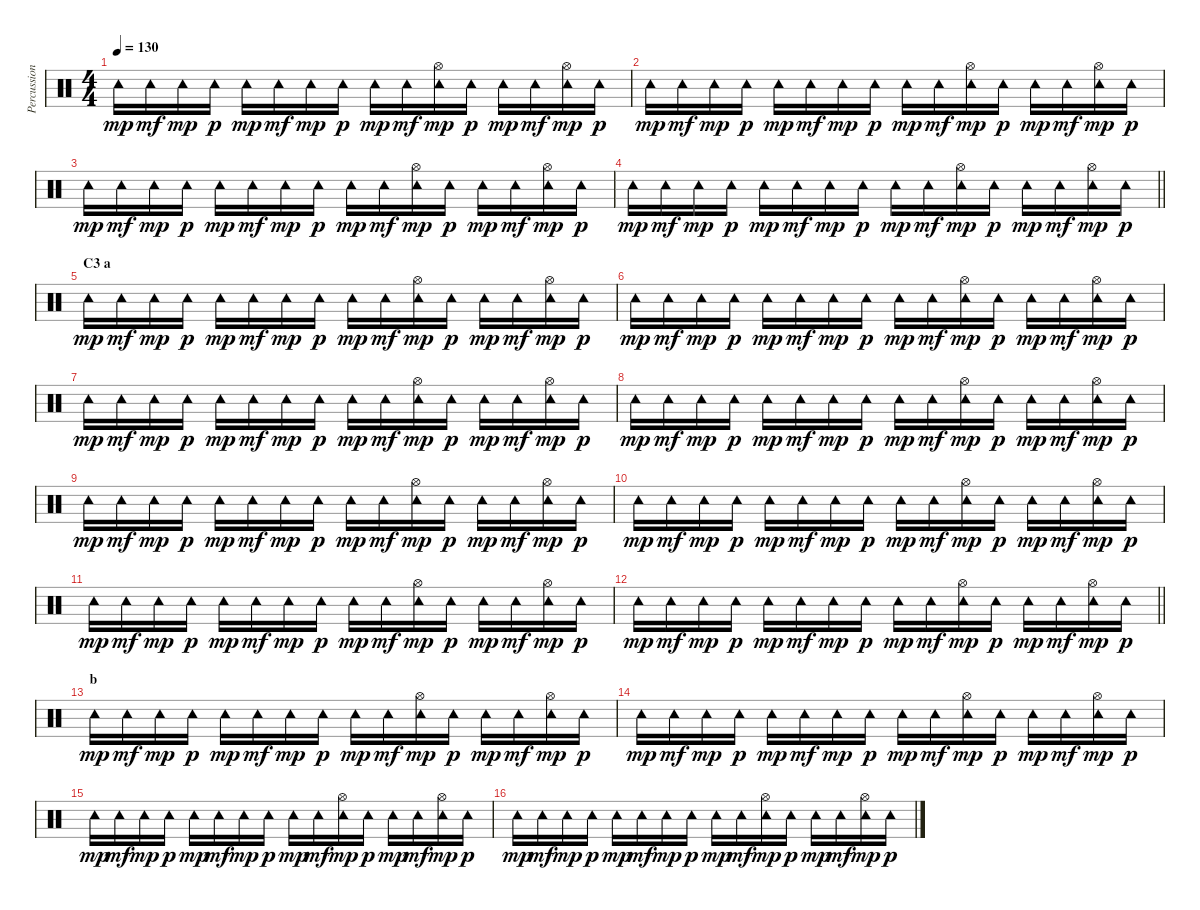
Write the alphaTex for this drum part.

\track ("Percussion (Programmed)" "Percussion") {instrument percussion}
\staff {score}
\articulation defaults
\ts (4 4)
\tempo 130
\clef neutral
\ks c "Tambourine (hit)".16{dy mp} "Tambourine (hit)".16{dy mf} "Tambourine (hit)".16{dy mp} "Tambourine (hit)".16{dy p} "Tambourine (hit)".16{dy mp} "Tambourine (hit)".16{dy mf} "Tambourine (hit)".16{dy mp} "Tambourine (hit)".16{dy p} "Tambourine (hit)".16{dy mp} "Tambourine (hit)".16{dy mf}
("Tambourine (hit)" "Hi-Hat (open)").16{dy mp} "Tambourine (hit)".16{dy p} "Tambourine (hit)".16{dy mp} "Tambourine (hit)".16{dy mf} ("Tambourine (hit)" "Hi-Hat (open)").16{dy mp} "Tambourine (hit)".16{dy p} |
"Tambourine (hit)".16{dy mp} "Tambourine (hit)".16{dy mf} "Tambourine (hit)".16{dy mp} "Tambourine (hit)".16{dy p} "Tambourine (hit)".16{dy mp} "Tambourine (hit)".16{dy mf} "Tambourine (hit)".16{dy mp} "Tambourine (hit)".16{dy p} "Tambourine (hit)".16{dy mp} "Tambourine (hit)".16{dy mf} ("Tambourine (hit)" "Hi-Hat (open)").16{dy mp} "Tambourine (hit)".16{dy p} "Tambourine (hit)".16{dy mp} "Tambourine (hit)".16{dy mf} ("Tambourine (hit)" "Hi-Hat (open)").16{dy mp} "Tambourine (hit)".16{dy p} |
"Tambourine (hit)".16{dy mp} "Tambourine (hit)".16{dy mf} "Tambourine (hit)".16{dy mp} "Tambourine (hit)".16{dy p} "Tambourine (hit)".16{dy mp} "Tambourine (hit)".16{dy mf} "Tambourine (hit)".16{dy mp} "Tambourine (hit)".16{dy p} "Tambourine (hit)".16{dy mp} "Tambourine (hit)".16{dy mf} ("Tambourine (hit)" "Hi-Hat (open)").16{dy mp} "Tambourine (hit)".16{dy p} "Tambourine (hit)".16{dy mp} "Tambourine (hit)".16{dy mf} ("Tambourine (hit)" "Hi-Hat (open)").16{dy mp} "Tambourine (hit)".16{dy p} |
\barLineRight lightlight "Tambourine (hit)".16{dy mp} "Tambourine (hit)".16{dy mf} "Tambourine (hit)".16{dy mp} "Tambourine (hit)".16{dy p} "Tambourine (hit)".16{dy mp} "Tambourine (hit)".16{dy mf} "Tambourine (hit)".16{dy mp} "Tambourine (hit)".16{dy p} "Tambourine (hit)".16{dy mp} "Tambourine (hit)".16{dy mf}
("Tambourine (hit)" "Hi-Hat (open)").16{dy mp} "Tambourine (hit)".16{dy p} "Tambourine (hit)".16{dy mp} "Tambourine (hit)".16{dy mf} ("Tambourine (hit)" "Hi-Hat (open)").16{dy mp} "Tambourine (hit)".16{dy p} |
\section ("" "C3 a")
"Tambourine (hit)".16{dy mp} "Tambourine (hit)".16{dy mf} "Tambourine (hit)".16{dy mp} "Tambourine (hit)".16{dy p} "Tambourine (hit)".16{dy mp} "Tambourine (hit)".16{dy mf} "Tambourine (hit)".16{dy mp} "Tambourine (hit)".16{dy p} "Tambourine (hit)".16{dy mp} "Tambourine (hit)".16{dy mf} ("Tambourine (hit)" "Hi-Hat (open)").16{dy mp} "Tambourine (hit)".16{dy p} "Tambourine (hit)".16{dy mp} "Tambourine (hit)".16{dy mf} ("Tambourine (hit)" "Hi-Hat (open)").16{dy mp} "Tambourine (hit)".16{dy p} |
"Tambourine (hit)".16{dy mp} "Tambourine (hit)".16{dy mf} "Tambourine (hit)".16{dy mp} "Tambourine (hit)".16{dy p} "Tambourine (hit)".16{dy mp} "Tambourine (hit)".16{dy mf} "Tambourine (hit)".16{dy mp} "Tambourine (hit)".16{dy p} "Tambourine (hit)".16{dy mp} "Tambourine (hit)".16{dy mf} ("Tambourine (hit)" "Hi-Hat (open)").16{dy mp} "Tambourine (hit)".16{dy p} "Tambourine (hit)".16{dy mp} "Tambourine (hit)".16{dy mf} ("Tambourine (hit)" "Hi-Hat (open)").16{dy mp} "Tambourine (hit)".16{dy p} |
"Tambourine (hit)".16{dy mp} "Tambourine (hit)".16{dy mf} "Tambourine (hit)".16{dy mp} "Tambourine (hit)".16{dy p} "Tambourine (hit)".16{dy mp} "Tambourine (hit)".16{dy mf} "Tambourine (hit)".16{dy mp} "Tambourine (hit)".16{dy p} "Tambourine (hit)".16{dy mp} "Tambourine (hit)".16{dy mf} ("Tambourine (hit)" "Hi-Hat (open)").16{dy mp} "Tambourine (hit)".16{dy p} "Tambourine (hit)".16{dy mp} "Tambourine (hit)".16{dy mf} ("Tambourine (hit)" "Hi-Hat (open)").16{dy mp} "Tambourine (hit)".16{dy p} |
"Tambourine (hit)".16{dy mp} "Tambourine (hit)".16{dy mf} "Tambourine (hit)".16{dy mp} "Tambourine (hit)".16{dy p} "Tambourine (hit)".16{dy mp} "Tambourine (hit)".16{dy mf} "Tambourine (hit)".16{dy mp} "Tambourine (hit)".16{dy p} "Tambourine (hit)".16{dy mp} "Tambourine (hit)".16{dy mf} ("Tambourine (hit)" "Hi-Hat (open)").16{dy mp} "Tambourine (hit)".16{dy p} "Tambourine (hit)".16{dy mp} "Tambourine (hit)".16{dy mf} ("Tambourine (hit)" "Hi-Hat (open)").16{dy mp} "Tambourine (hit)".16{dy p} |
"Tambourine (hit)".16{dy mp} "Tambourine (hit)".16{dy mf} "Tambourine (hit)".16{dy mp} "Tambourine (hit)".16{dy p} "Tambourine (hit)".16{dy mp} "Tambourine (hit)".16{dy mf} "Tambourine (hit)".16{dy mp} "Tambourine (hit)".16{dy p} "Tambourine (hit)".16{dy mp} "Tambourine (hit)".16{dy mf} ("Tambourine (hit)" "Hi-Hat (open)").16{dy mp} "Tambourine (hit)".16{dy p} "Tambourine (hit)".16{dy mp} "Tambourine (hit)".16{dy mf} ("Tambourine (hit)" "Hi-Hat (open)").16{dy mp} "Tambourine (hit)".16{dy p} |
"Tambourine (hit)".16{dy mp} "Tambourine (hit)".16{dy mf} "Tambourine (hit)".16{dy mp} "Tambourine (hit)".16{dy p} "Tambourine (hit)".16{dy mp} "Tambourine (hit)".16{dy mf} "Tambourine (hit)".16{dy mp} "Tambourine (hit)".16{dy p} "Tambourine (hit)".16{dy mp} "Tambourine (hit)".16{dy mf} ("Tambourine (hit)" "Hi-Hat (open)").16{dy mp} "Tambourine (hit)".16{dy p} "Tambourine (hit)".16{dy mp} "Tambourine (hit)".16{dy mf} ("Tambourine (hit)" "Hi-Hat (open)").16{dy mp} "Tambourine (hit)".16{dy p} |
"Tambourine (hit)".16{dy mp} "Tambourine (hit)".16{dy mf} "Tambourine (hit)".16{dy mp} "Tambourine (hit)".16{dy p} "Tambourine (hit)".16{dy mp} "Tambourine (hit)".16{dy mf} "Tambourine (hit)".16{dy mp} "Tambourine (hit)".16{dy p} "Tambourine (hit)".16{dy mp} "Tambourine (hit)".16{dy mf} ("Tambourine (hit)" "Hi-Hat (open)").16{dy mp} "Tambourine (hit)".16{dy p} "Tambourine (hit)".16{dy mp} "Tambourine (hit)".16{dy mf} ("Tambourine (hit)" "Hi-Hat (open)").16{dy mp} "Tambourine (hit)".16{dy p} |
\barLineRight lightlight "Tambourine (hit)".16{dy mp} "Tambourine (hit)".16{dy mf} "Tambourine (hit)".16{dy mp} "Tambourine (hit)".16{dy p} "Tambourine (hit)".16{dy mp} "Tambourine (hit)".16{dy mf} "Tambourine (hit)".16{dy mp} "Tambourine (hit)".16{dy p} "Tambourine (hit)".16{dy mp} "Tambourine (hit)".16{dy mf}
("Tambourine (hit)" "Hi-Hat (open)").16{dy mp} "Tambourine (hit)".16{dy p} "Tambourine (hit)".16{dy mp} "Tambourine (hit)".16{dy mf} ("Tambourine (hit)" "Hi-Hat (open)").16{dy mp} "Tambourine (hit)".16{dy p} |
\section ("" "b")
"Tambourine (hit)".16{dy mp} "Tambourine (hit)".16{dy mf} "Tambourine (hit)".16{dy mp} "Tambourine (hit)".16{dy p} "Tambourine (hit)".16{dy mp} "Tambourine (hit)".16{dy mf} "Tambourine (hit)".16{dy mp} "Tambourine (hit)".16{dy p} "Tambourine (hit)".16{dy mp} "Tambourine (hit)".16{dy mf} ("Tambourine (hit)" "Hi-Hat (open)").16{dy mp} "Tambourine (hit)".16{dy p} "Tambourine (hit)".16{dy mp} "Tambourine (hit)".16{dy mf} ("Tambourine (hit)" "Hi-Hat (open)").16{dy mp} "Tambourine (hit)".16{dy p} |
"Tambourine (hit)".16{dy mp} "Tambourine (hit)".16{dy mf} "Tambourine (hit)".16{dy mp} "Tambourine (hit)".16{dy p} "Tambourine (hit)".16{dy mp} "Tambourine (hit)".16{dy mf} "Tambourine (hit)".16{dy mp} "Tambourine (hit)".16{dy p} "Tambourine (hit)".16{dy mp} "Tambourine (hit)".16{dy mf} ("Tambourine (hit)" "Hi-Hat (open)").16{dy mp} "Tambourine (hit)".16{dy p} "Tambourine (hit)".16{dy mp} "Tambourine (hit)".16{dy mf} ("Tambourine (hit)" "Hi-Hat (open)").16{dy mp} "Tambourine (hit)".16{dy p} |
"Tambourine (hit)".16{dy mp} "Tambourine (hit)".16{dy mf} "Tambourine (hit)".16{dy mp} "Tambourine (hit)".16{dy p} "Tambourine (hit)".16{dy mp} "Tambourine (hit)".16{dy mf} "Tambourine (hit)".16{dy mp} "Tambourine (hit)".16{dy p} "Tambourine (hit)".16{dy mp} "Tambourine (hit)".16{dy mf} ("Tambourine (hit)" "Hi-Hat (open)").16{dy mp} "Tambourine (hit)".16{dy p} "Tambourine (hit)".16{dy mp} "Tambourine (hit)".16{dy mf} ("Tambourine (hit)" "Hi-Hat (open)").16{dy mp} "Tambourine (hit)".16{dy p} |
"Tambourine (hit)".16{dy mp} "Tambourine (hit)".16{dy mf} "Tambourine (hit)".16{dy mp} "Tambourine (hit)".16{dy p} "Tambourine (hit)".16{dy mp} "Tambourine (hit)".16{dy mf} "Tambourine (hit)".16{dy mp} "Tambourine (hit)".16{dy p} "Tambourine (hit)".16{dy mp} "Tambourine (hit)".16{dy mf} ("Tambourine (hit)" "Hi-Hat (open)").16{dy mp} "Tambourine (hit)".16{dy p} "Tambourine (hit)".16{dy mp} "Tambourine (hit)".16{dy mf} ("Tambourine (hit)" "Hi-Hat (open)").16{dy mp} "Tambourine (hit)".16{dy p}
